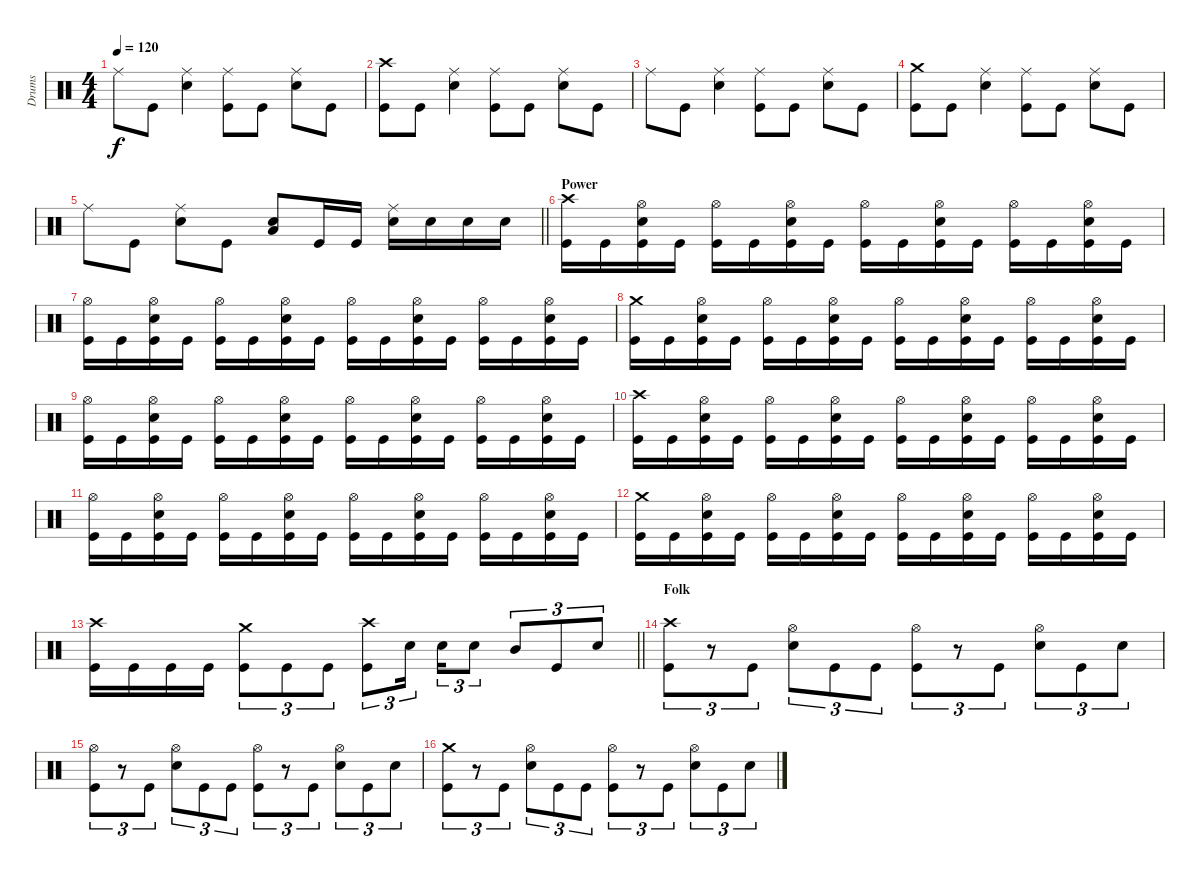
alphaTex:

\track ("Drums" "Drums") {instrument percussion}
\staff {score}
\articulation defaults
\ts (4 4)
\tempo 120
\clef neutral
\ks c "Ride (middle)".8{dy f} "Kick (hit)".8
("Ride (middle)" "Electric Snare (hit)").4 ("Ride (middle)" "Kick (hit)").8 "Kick (hit)".8 ("Ride (middle)" "Electric Snare (hit)").8 "Kick (hit)".8 |
("Crash high (hit)" "Kick (hit)").8 "Kick (hit)".8 ("Ride (middle)" "Electric Snare (hit)").4 ("Ride (middle)" "Kick (hit)").8 "Kick (hit)".8 ("Ride (middle)" "Electric Snare (hit)").8 "Kick (hit)".8 |
"Ride (middle)".8 "Kick (hit)".8 ("Ride (middle)" "Electric Snare (hit)").4 ("Ride (middle)" "Kick (hit)").8 "Kick (hit)".8 ("Ride (middle)" "Electric Snare (hit)").8 "Kick (hit)".8 |
("Crash medium (hit)" "Kick (hit)").8 "Kick (hit)".8 ("Ride (middle)" "Electric Snare (hit)").4 ("Ride (middle)" "Kick (hit)").8 "Kick (hit)".8 ("Ride (middle)" "Electric Snare (hit)").8 "Kick (hit)".8 |
\barLineRight lightlight "Ride (middle)".8 "Kick (hit)".8
("Ride (middle)" "Electric Snare (hit)").8 "Kick (hit)".8 ("Low Floor Tom (hit)" "Electric Snare (hit)").8 "Kick (hit)".16 "Kick (hit)".16 ("Ride (middle)" "Electric Snare (hit)").16 "Electric Snare (hit)".16 "Electric Snare (hit)".16 "Electric Snare (hit)".16 |
\section ("" "Power")
("Crash high (hit)" "Kick (hit)").16 "Kick (hit)".16 ("Hi-Hat (open)" "Electric Snare (hit)" "Kick (hit)").16 "Kick (hit)".16 ("Hi-Hat (open)" "Kick (hit)").16 "Kick (hit)".16 ("Hi-Hat (open)" "Electric Snare (hit)" "Kick (hit)").16 "Kick (hit)".16 ("Hi-Hat (open)" "Kick (hit)").16 "Kick (hit)".16 ("Hi-Hat (open)" "Electric Snare (hit)" "Kick (hit)").16 "Kick (hit)".16 ("Hi-Hat (open)" "Kick (hit)").16 "Kick (hit)".16 ("Hi-Hat (open)" "Electric Snare (hit)" "Kick (hit)").16 "Kick (hit)".16 |
("Hi-Hat (open)" "Kick (hit)").16 "Kick (hit)".16 ("Hi-Hat (open)" "Electric Snare (hit)" "Kick (hit)").16 "Kick (hit)".16 ("Hi-Hat (open)" "Kick (hit)").16 "Kick (hit)".16 ("Hi-Hat (open)" "Electric Snare (hit)" "Kick (hit)").16 "Kick (hit)".16 ("Hi-Hat (open)" "Kick (hit)").16 "Kick (hit)".16 ("Hi-Hat (open)" "Electric Snare (hit)" "Kick (hit)").16 "Kick (hit)".16 ("Hi-Hat (open)" "Kick (hit)").16 "Kick (hit)".16 ("Hi-Hat (open)" "Electric Snare (hit)" "Kick (hit)").16 "Kick (hit)".16 |
("Crash medium (hit)" "Kick (hit)").16 "Kick (hit)".16 ("Hi-Hat (open)" "Electric Snare (hit)" "Kick (hit)").16 "Kick (hit)".16 ("Hi-Hat (open)" "Kick (hit)").16 "Kick (hit)".16 ("Hi-Hat (open)" "Electric Snare (hit)" "Kick (hit)").16 "Kick (hit)".16 ("Hi-Hat (open)" "Kick (hit)").16 "Kick (hit)".16 ("Hi-Hat (open)" "Electric Snare (hit)" "Kick (hit)").16 "Kick (hit)".16 ("Hi-Hat (open)" "Kick (hit)").16 "Kick (hit)".16 ("Hi-Hat (open)" "Electric Snare (hit)" "Kick (hit)").16 "Kick (hit)".16 |
("Hi-Hat (open)" "Kick (hit)").16 "Kick (hit)".16 ("Hi-Hat (open)" "Electric Snare (hit)" "Kick (hit)").16 "Kick (hit)".16 ("Hi-Hat (open)" "Kick (hit)").16 "Kick (hit)".16 ("Hi-Hat (open)" "Electric Snare (hit)" "Kick (hit)").16 "Kick (hit)".16 ("Hi-Hat (open)" "Kick (hit)").16 "Kick (hit)".16 ("Hi-Hat (open)" "Electric Snare (hit)" "Kick (hit)").16 "Kick (hit)".16 ("Hi-Hat (open)" "Kick (hit)").16 "Kick (hit)".16 ("Hi-Hat (open)" "Electric Snare (hit)" "Kick (hit)").16 "Kick (hit)".16 |
("Crash high (hit)" "Kick (hit)").16 "Kick (hit)".16 ("Hi-Hat (open)" "Electric Snare (hit)" "Kick (hit)").16 "Kick (hit)".16 ("Hi-Hat (open)" "Kick (hit)").16 "Kick (hit)".16 ("Hi-Hat (open)" "Electric Snare (hit)" "Kick (hit)").16 "Kick (hit)".16 ("Hi-Hat (open)" "Kick (hit)").16 "Kick (hit)".16 ("Hi-Hat (open)" "Electric Snare (hit)" "Kick (hit)").16 "Kick (hit)".16 ("Hi-Hat (open)" "Kick (hit)").16 "Kick (hit)".16 ("Hi-Hat (open)" "Electric Snare (hit)" "Kick (hit)").16 "Kick (hit)".16 |
("Hi-Hat (open)" "Kick (hit)").16 "Kick (hit)".16 ("Hi-Hat (open)" "Electric Snare (hit)" "Kick (hit)").16 "Kick (hit)".16 ("Hi-Hat (open)" "Kick (hit)").16 "Kick (hit)".16 ("Hi-Hat (open)" "Electric Snare (hit)" "Kick (hit)").16 "Kick (hit)".16 ("Hi-Hat (open)" "Kick (hit)").16 "Kick (hit)".16 ("Hi-Hat (open)" "Electric Snare (hit)" "Kick (hit)").16 "Kick (hit)".16 ("Hi-Hat (open)" "Kick (hit)").16 "Kick (hit)".16 ("Hi-Hat (open)" "Electric Snare (hit)" "Kick (hit)").16 "Kick (hit)".16 |
("Crash medium (hit)" "Kick (hit)").16 "Kick (hit)".16 ("Hi-Hat (open)" "Electric Snare (hit)" "Kick (hit)").16 "Kick (hit)".16 ("Hi-Hat (open)" "Kick (hit)").16 "Kick (hit)".16 ("Hi-Hat (open)" "Electric Snare (hit)" "Kick (hit)").16 "Kick (hit)".16 ("Hi-Hat (open)" "Kick (hit)").16 "Kick (hit)".16 ("Hi-Hat (open)" "Electric Snare (hit)" "Kick (hit)").16 "Kick (hit)".16 ("Hi-Hat (open)" "Kick (hit)").16 "Kick (hit)".16 ("Hi-Hat (open)" "Electric Snare (hit)" "Kick (hit)").16 "Kick (hit)".16 |
\barLineRight lightlight
("Crash high (hit)" "Kick (hit)").16 "Kick (hit)".16 "Kick (hit)".16 "Kick (hit)".16 ("Crash medium (hit)" "Kick (hit)").8{tu (3 2)} "Kick (hit)".8{tu (3 2)} "Kick (hit)".8{tu (3 2)} ("Crash high (hit)" "Kick (hit)").8{tu (3 2)} "Electric Snare (hit)".16{tu (3 2)} "Electric Snare (hit)".16{tu (3 2)} "Electric Snare (hit)".8{tu (3 2)} "Mid Tom (hit)".8{tu (3 2)} "Kick (hit)".8{tu (3 2)} "Electric Snare (hit)".8{tu (3 2)} |
\section ("" "Folk")
("Crash high (hit)" "Kick (hit)").8{tu (3 2)} r.8{tu (3 2)} "Kick (hit)".8{tu (3 2)} ("Hi-Hat (open)" "Electric Snare (hit)").8{tu (3 2)} "Kick (hit)".8{tu (3 2)} "Kick (hit)".8{tu (3 2)} ("Hi-Hat (open)" "Kick (hit)").8{tu (3 2)} r.8{tu (3 2)} "Kick (hit)".8{tu (3 2)} ("Hi-Hat (open)" "Electric Snare (hit)").8{tu (3 2)} "Kick (hit)".8{tu (3 2)} "Electric Snare (hit)".8{tu (3 2)} |
("Hi-Hat (open)" "Kick (hit)").8{tu (3 2)} r.8{tu (3 2)} "Kick (hit)".8{tu (3 2)} ("Hi-Hat (open)" "Electric Snare (hit)").8{tu (3 2)} "Kick (hit)".8{tu (3 2)} "Kick (hit)".8{tu (3 2)} ("Hi-Hat (open)" "Kick (hit)").8{tu (3 2)} r.8{tu (3 2)} "Kick (hit)".8{tu (3 2)} ("Hi-Hat (open)" "Electric Snare (hit)").8{tu (3 2)} "Kick (hit)".8{tu (3 2)} "Electric Snare (hit)".8{tu (3 2)} |
("Crash medium (hit)" "Kick (hit)").8{tu (3 2)} r.8{tu (3 2)} "Kick (hit)".8{tu (3 2)} ("Hi-Hat (open)" "Electric Snare (hit)").8{tu (3 2)} "Kick (hit)".8{tu (3 2)} "Kick (hit)".8{tu (3 2)} ("Hi-Hat (open)" "Kick (hit)").8{tu (3 2)} r.8{tu (3 2)} "Kick (hit)".8{tu (3 2)} ("Hi-Hat (open)" "Electric Snare (hit)").8{tu (3 2)} "Kick (hit)".8{tu (3 2)} "Electric Snare (hit)".8{tu (3 2)}
